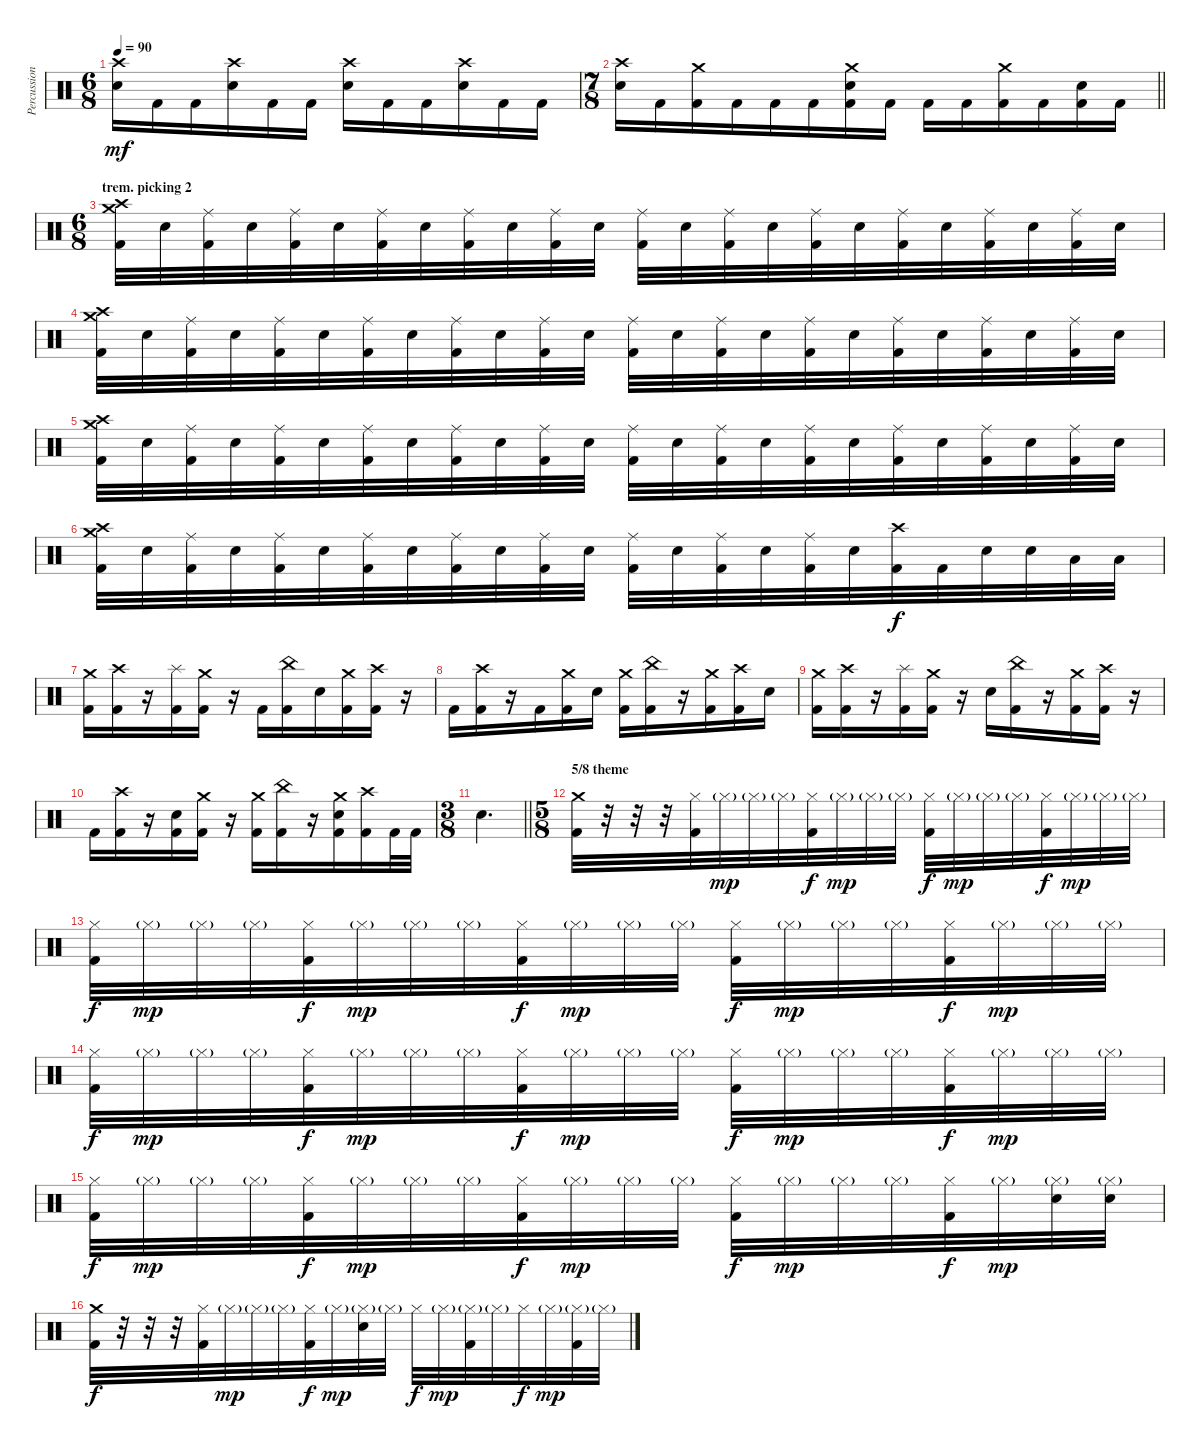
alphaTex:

\track ("Percussion" "Percussion") {instrument percussion}
\staff {score}
\articulation defaults
\ts (6 8)
\tempo 90
\clef neutral
\ks c
("Crash high (hit)" "Electric Snare (hit)").16{dy mf} "Kick (hit) 2".16 "Kick (hit) 2".16 ("Crash high (hit)" "Electric Snare (hit)").16 "Kick (hit) 2".16 "Kick (hit) 2".16 ("Crash high (hit)" "Electric Snare (hit)").16 "Kick (hit) 2".16 "Kick (hit) 2".16 ("Crash high (hit)" "Electric Snare (hit)").16 "Kick (hit) 2".16 "Kick (hit) 2".16 |
\ts (7 8)
\barLineRight lightlight
("Crash high (hit)" "Electric Snare (hit)").16 "Kick (hit) 2".16 ("Crash medium (hit)" "Kick (hit) 2").16 "Kick (hit) 2".16 "Kick (hit) 2".16 "Kick (hit) 2".16 ("Crash medium (hit)" "Electric Snare (hit)" "Kick (hit) 2").16 "Kick (hit) 2".16 "Kick (hit) 2".16 "Kick (hit) 2".16 ("Crash medium (hit)" "Kick (hit) 2").16 "Kick (hit) 2".16 ("Electric Snare (hit)" "Kick (hit) 2").16 "Kick (hit) 2".16 |
\ts (6 8)
\section ("" "trem. picking 2")
("Crash high (hit)" "Crash medium (hit)" "Kick (hit) 2").32 "Electric Snare (hit)".32 ("Ride (middle)" "Kick (hit) 2").32 "Electric Snare (hit)".32 ("Ride (middle)" "Kick (hit) 2").32 "Electric Snare (hit)".32 ("Ride (middle)" "Kick (hit) 2").32 "Electric Snare (hit)".32 ("Ride (middle)" "Kick (hit) 2").32 "Electric Snare (hit)".32 ("Ride (middle)" "Kick (hit) 2").32 "Electric Snare (hit)".32 ("Ride (middle)" "Kick (hit) 2").32 "Electric Snare (hit)".32 ("Ride (middle)" "Kick (hit) 2").32 "Electric Snare (hit)".32 ("Ride (middle)" "Kick (hit) 2").32 "Electric Snare (hit)".32 ("Ride (middle)" "Kick (hit) 2").32 "Electric Snare (hit)".32 ("Ride (middle)" "Kick (hit) 2").32 "Electric Snare (hit)".32 ("Ride (middle)" "Kick (hit) 2").32 "Electric Snare (hit)".32 |
("Crash high (hit)" "Crash medium (hit)" "Kick (hit) 2").32 "Electric Snare (hit)".32 ("Ride (middle)" "Kick (hit) 2").32 "Electric Snare (hit)".32 ("Ride (middle)" "Kick (hit) 2").32 "Electric Snare (hit)".32 ("Ride (middle)" "Kick (hit) 2").32 "Electric Snare (hit)".32 ("Ride (middle)" "Kick (hit) 2").32 "Electric Snare (hit)".32 ("Ride (middle)" "Kick (hit) 2").32 "Electric Snare (hit)".32 ("Ride (middle)" "Kick (hit) 2").32 "Electric Snare (hit)".32 ("Ride (middle)" "Kick (hit) 2").32 "Electric Snare (hit)".32 ("Ride (middle)" "Kick (hit) 2").32 "Electric Snare (hit)".32 ("Ride (middle)" "Kick (hit) 2").32 "Electric Snare (hit)".32 ("Ride (middle)" "Kick (hit) 2").32 "Electric Snare (hit)".32 ("Ride (middle)" "Kick (hit) 2").32 "Electric Snare (hit)".32 |
("Crash high (hit)" "Crash medium (hit)" "Kick (hit) 2").32 "Electric Snare (hit)".32 ("Ride (middle)" "Kick (hit) 2").32 "Electric Snare (hit)".32 ("Ride (middle)" "Kick (hit) 2").32 "Electric Snare (hit)".32 ("Ride (middle)" "Kick (hit) 2").32 "Electric Snare (hit)".32 ("Ride (middle)" "Kick (hit) 2").32 "Electric Snare (hit)".32 ("Ride (middle)" "Kick (hit) 2").32 "Electric Snare (hit)".32 ("Ride (middle)" "Kick (hit) 2").32 "Electric Snare (hit)".32 ("Ride (middle)" "Kick (hit) 2").32 "Electric Snare (hit)".32 ("Ride (middle)" "Kick (hit) 2").32 "Electric Snare (hit)".32 ("Ride (middle)" "Kick (hit) 2").32 "Electric Snare (hit)".32 ("Ride (middle)" "Kick (hit) 2").32 "Electric Snare (hit)".32 ("Ride (middle)" "Kick (hit) 2").32 "Electric Snare (hit)".32 |
("Crash high (hit)" "Crash medium (hit)" "Kick (hit) 2").32 "Electric Snare (hit)".32 ("Ride (middle)" "Kick (hit) 2").32 "Electric Snare (hit)".32 ("Ride (middle)" "Kick (hit) 2").32 "Electric Snare (hit)".32 ("Ride (middle)" "Kick (hit) 2").32 "Electric Snare (hit)".32 ("Ride (middle)" "Kick (hit) 2").32 "Electric Snare (hit)".32 ("Ride (middle)" "Kick (hit) 2").32 "Electric Snare (hit)".32 ("Ride (middle)" "Kick (hit) 2").32 "Electric Snare (hit)".32 ("Ride (middle)" "Kick (hit) 2").32 "Electric Snare (hit)".32 ("Ride (middle)" "Kick (hit) 2").32 "Electric Snare (hit)".32 ("Crash high (hit)" "Kick (hit) 2").32{dy f} "Kick (hit) 2".32 "Electric Snare (hit)".32 "Electric Snare (hit)".32 "Low Tom (hit)".32 "Low Tom (hit)".32 |
("Crash medium (hit)" "Kick (hit) 2").16 ("Crash high (hit)" "Kick (hit) 2").16 r.16 ("Splash (hit)" "Kick (hit) 2").16 ("Crash medium (hit)" "Kick (hit) 2").16 r.16 "Kick (hit) 2".16 ("China (hit)" "Kick (hit) 2").16 "Electric Snare (hit)".16 ("Crash medium (hit)" "Kick (hit) 2").16 ("Crash high (hit)" "Kick (hit) 2").16 r.16 |
"Kick (hit) 2".16 ("Crash high (hit)" "Kick (hit) 2").16 r.16 "Kick (hit) 2".16 ("Crash medium (hit)" "Kick (hit) 2").16 "Electric Snare (hit)".16 ("Crash medium (hit)" "Kick (hit) 2").16 ("China (hit)" "Kick (hit) 2").16 r.16 ("Crash medium (hit)" "Kick (hit) 2").16 ("Crash high (hit)" "Kick (hit) 2").16 "Electric Snare (hit)".16 |
("Crash medium (hit)" "Kick (hit) 2").16 ("Crash high (hit)" "Kick (hit) 2").16 r.16 ("Splash (hit)" "Kick (hit) 2").16 ("Crash medium (hit)" "Kick (hit) 2").16 r.16 "Electric Snare (hit)".16 ("China (hit)" "Kick (hit) 2").16 r.16 ("Crash medium (hit)" "Kick (hit) 2").16 ("Crash high (hit)" "Kick (hit) 2").16 r.16 |
"Kick (hit) 2".16 ("Crash high (hit)" "Kick (hit) 2").16 r.16 ("Electric Snare (hit)" "Kick (hit) 2").16 ("Crash medium (hit)" "Kick (hit) 2").16 r.16 ("Crash medium (hit)" "Kick (hit) 2").16 ("China (hit)" "Kick (hit) 2").16 r.16 ("Crash medium (hit)" "Electric Snare (hit)" "Kick (hit) 2").16 ("Crash high (hit)" "Kick (hit) 2").16 "Kick (hit) 2".32 "Kick (hit) 2".32 |
\ts (3 8)
\barLineRight lightlight "Electric Snare (hit)".4{d}
|
\ts (5 8)
\section ("" "5/8 theme")
("Crash medium (hit)" "Kick (hit) 2").32 r.32 r.32 r.32 ("Hi-Hat (closed)" "Kick (hit) 2").32 "Hi-Hat (closed)"{g}.32{dy mp} "Hi-Hat (closed)"{g}.32 "Hi-Hat (closed)"{g}.32 ("Hi-Hat (closed)" "Kick (hit) 2").32{dy f} "Hi-Hat (closed)"{g}.32{dy mp} "Hi-Hat (closed)"{g}.32 "Hi-Hat (closed)"{g}.32 ("Hi-Hat (closed)" "Kick (hit) 2").32{dy f} "Hi-Hat (closed)"{g}.32{dy mp} "Hi-Hat (closed)"{g}.32 "Hi-Hat (closed)"{g}.32 ("Hi-Hat (closed)" "Kick (hit) 2").32{dy f} "Hi-Hat (closed)"{g}.32{dy mp} "Hi-Hat (closed)"{g}.32 "Hi-Hat (closed)"{g}.32 |
("Hi-Hat (closed)" "Kick (hit) 2").32{dy f} "Hi-Hat (closed)"{g}.32{dy mp} "Hi-Hat (closed)"{g}.32 "Hi-Hat (closed)"{g}.32 ("Hi-Hat (closed)" "Kick (hit) 2").32{dy f} "Hi-Hat (closed)"{g}.32{dy mp} "Hi-Hat (closed)"{g}.32 "Hi-Hat (closed)"{g}.32 ("Hi-Hat (closed)" "Kick (hit) 2").32{dy f} "Hi-Hat (closed)"{g}.32{dy mp} "Hi-Hat (closed)"{g}.32 "Hi-Hat (closed)"{g}.32 ("Hi-Hat (closed)" "Kick (hit) 2").32{dy f} "Hi-Hat (closed)"{g}.32{dy mp} "Hi-Hat (closed)"{g}.32 "Hi-Hat (closed)"{g}.32 ("Hi-Hat (closed)" "Kick (hit) 2").32{dy f} "Hi-Hat (closed)"{g}.32{dy mp} "Hi-Hat (closed)"{g}.32 "Hi-Hat (closed)"{g}.32 |
("Hi-Hat (closed)" "Kick (hit) 2").32{dy f} "Hi-Hat (closed)"{g}.32{dy mp} "Hi-Hat (closed)"{g}.32 "Hi-Hat (closed)"{g}.32 ("Hi-Hat (closed)" "Kick (hit) 2").32{dy f} "Hi-Hat (closed)"{g}.32{dy mp} "Hi-Hat (closed)"{g}.32 "Hi-Hat (closed)"{g}.32 ("Hi-Hat (closed)" "Kick (hit) 2").32{dy f} "Hi-Hat (closed)"{g}.32{dy mp} "Hi-Hat (closed)"{g}.32 "Hi-Hat (closed)"{g}.32 ("Hi-Hat (closed)" "Kick (hit) 2").32{dy f} "Hi-Hat (closed)"{g}.32{dy mp} "Hi-Hat (closed)"{g}.32 "Hi-Hat (closed)"{g}.32 ("Hi-Hat (closed)" "Kick (hit) 2").32{dy f} "Hi-Hat (closed)"{g}.32{dy mp} "Hi-Hat (closed)"{g}.32 "Hi-Hat (closed)"{g}.32 |
("Hi-Hat (closed)" "Kick (hit) 2").32{dy f} "Hi-Hat (closed)"{g}.32{dy mp} "Hi-Hat (closed)"{g}.32 "Hi-Hat (closed)"{g}.32 ("Hi-Hat (closed)" "Kick (hit) 2").32{dy f} "Hi-Hat (closed)"{g}.32{dy mp} "Hi-Hat (closed)"{g}.32 "Hi-Hat (closed)"{g}.32 ("Hi-Hat (closed)" "Kick (hit) 2").32{dy f} "Hi-Hat (closed)"{g}.32{dy mp} "Hi-Hat (closed)"{g}.32 "Hi-Hat (closed)"{g}.32 ("Hi-Hat (closed)" "Kick (hit) 2").32{dy f} "Hi-Hat (closed)"{g}.32{dy mp} "Hi-Hat (closed)"{g}.32 "Hi-Hat (closed)"{g}.32 ("Hi-Hat (closed)" "Kick (hit) 2").32{dy f} "Hi-Hat (closed)"{g}.32{dy mp} ("Hi-Hat (closed)"{g} "Electric Snare (hit)").32 ("Hi-Hat (closed)"{g} "Electric Snare (hit)").32 |
("Crash medium (hit)" "Kick (hit) 2").32{dy f} r.32 r.32 r.32 ("Hi-Hat (closed)" "Kick (hit) 2").32 "Hi-Hat (closed)"{g}.32{dy mp} "Hi-Hat (closed)"{g}.32 "Hi-Hat (closed)"{g}.32 ("Hi-Hat (closed)" "Kick (hit) 2").32{dy f} "Hi-Hat (closed)"{g}.32{dy mp} ("Hi-Hat (closed)"{g} "Electric Snare (hit)").32 "Hi-Hat (closed)"{g}.32 "Hi-Hat (closed)".32{dy f} "Hi-Hat (closed)"{g}.32{dy mp} ("Hi-Hat (closed)"{g} "Kick (hit) 2").32 "Hi-Hat (closed)"{g}.32 "Hi-Hat (closed)".32{dy f} "Hi-Hat (closed)"{g}.32{dy mp} ("Hi-Hat (closed)"{g} "Kick (hit) 2").32 "Hi-Hat (closed)"{g}.32
